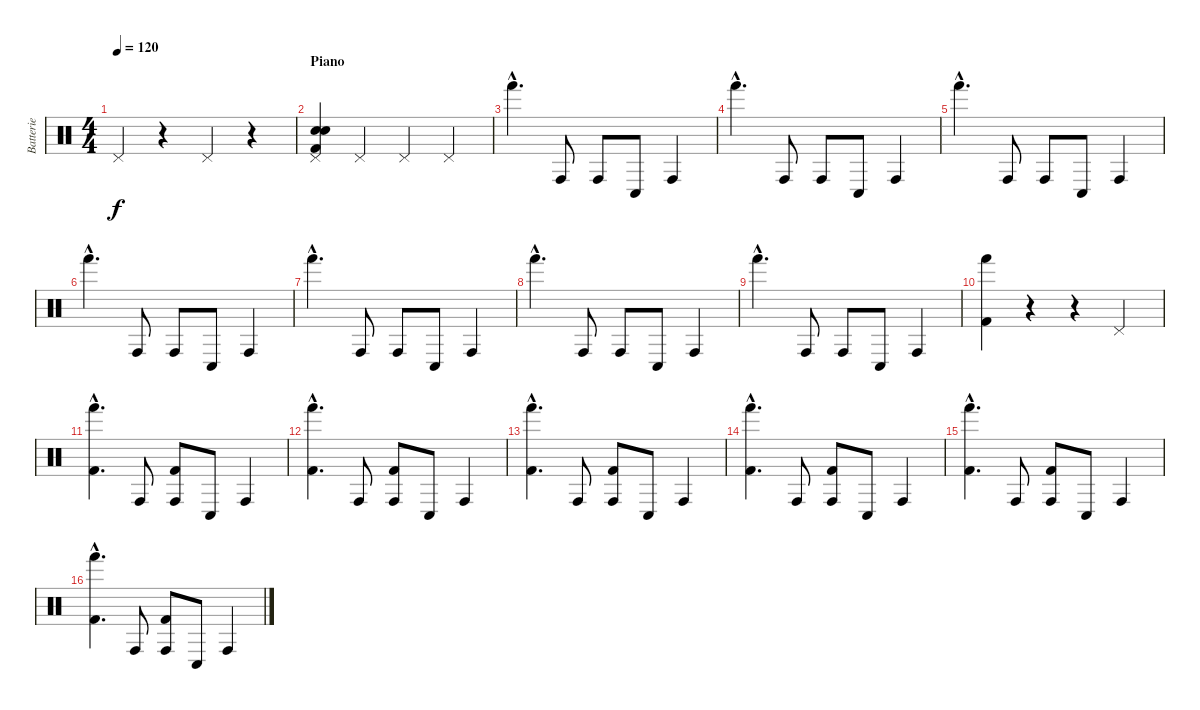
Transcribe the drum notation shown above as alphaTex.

\track ("Batterie" "Batterie") {instrument percussion}
\staff {score}
\articulation defaults
\ts (4 4)
\tempo 120
\clef neutral
\ks c "Pedal Hi-Hat (hit)".4{dy f}
r.4 "Pedal Hi-Hat (hit)".4 r.4 |
\section ("" "Piano")
("Pedal Hi-Hat (hit)" "Electric Snare (hit)" "Electric Snare (hit)" "Kick (hit) 2").4 "Pedal Hi-Hat (hit)".4 "Pedal Hi-Hat (hit)".4 "Pedal Hi-Hat (hit)".4 |
"Hand (hit)"{hac}.4{d} "Conga high (hit)".8 "Conga high (hit)".8 "Conga low (hit)".8 "Conga high (hit)".4 |
"Hand (hit)"{hac}.4{d} "Conga high (hit)".8 "Conga high (hit)".8 "Conga low (hit)".8 "Conga high (hit)".4 |
"Hand (hit)"{hac}.4{d} "Conga high (hit)".8 "Conga high (hit)".8 "Conga low (hit)".8 "Conga high (hit)".4 |
"Hand (hit)"{hac}.4{d} "Conga high (hit)".8 "Conga high (hit)".8 "Conga low (hit)".8 "Conga high (hit)".4 |
"Hand (hit)"{hac}.4{d} "Conga high (hit)".8 "Conga high (hit)".8 "Conga low (hit)".8 "Conga high (hit)".4 |
"Hand (hit)"{hac}.4{d} "Conga high (hit)".8 "Conga high (hit)".8 "Conga low (hit)".8 "Conga high (hit)".4 |
"Hand (hit)"{hac}.4{d} "Conga high (hit)".8 "Conga high (hit)".8 "Conga low (hit)".8 "Conga high (hit)".4 |
("Hand (hit)" "Kick (hit) 2").4 r.4 r.4 "Pedal Hi-Hat (hit)".4 |
("Hand (hit)"{hac} "Kick (hit) 2"{hac}).4{d} "Conga high (hit)".8 ("Conga high (hit)" "Kick (hit) 2").8 "Conga low (hit)".8 "Conga high (hit)".4 |
("Hand (hit)"{hac} "Kick (hit) 2"{hac}).4{d} "Conga high (hit)".8 ("Conga high (hit)" "Kick (hit) 2").8 "Conga low (hit)".8 "Conga high (hit)".4 |
("Hand (hit)"{hac} "Kick (hit) 2"{hac}).4{d} "Conga high (hit)".8 ("Conga high (hit)" "Kick (hit) 2").8 "Conga low (hit)".8 "Conga high (hit)".4 |
("Hand (hit)"{hac} "Kick (hit) 2"{hac}).4{d} "Conga high (hit)".8 ("Conga high (hit)" "Kick (hit) 2").8 "Conga low (hit)".8 "Conga high (hit)".4 |
("Hand (hit)"{hac} "Kick (hit) 2"{hac}).4{d} "Conga high (hit)".8 ("Conga high (hit)" "Kick (hit) 2").8 "Conga low (hit)".8 "Conga high (hit)".4 |
("Hand (hit)"{hac} "Kick (hit) 2"{hac}).4{d} "Conga high (hit)".8 ("Conga high (hit)" "Kick (hit) 2").8 "Conga low (hit)".8 "Conga high (hit)".4
